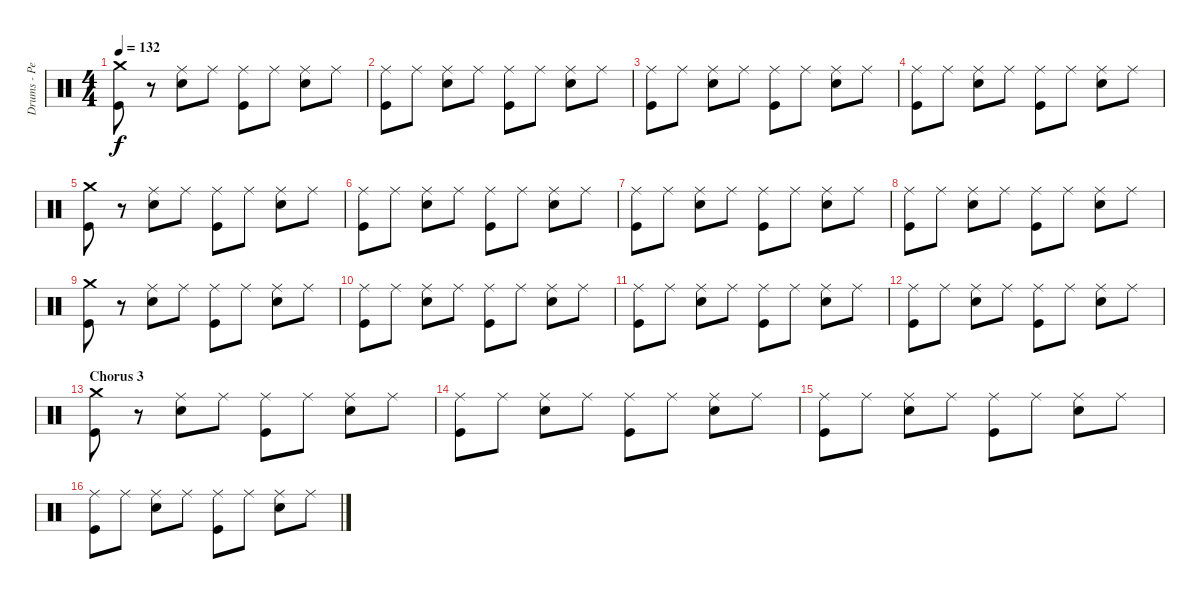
\track ("Drums - Pete Gill" "Drums - Pe") {instrument percussion}
\staff {score}
\articulation defaults
\ts (4 4)
\tempo 132
\clef neutral
\ks c
("Crash medium (hit)" "Kick (hit)").8{dy f} r.8 ("Ride (middle)" "Snare (hit) 2").8 "Ride (middle)".8 ("Ride (middle)" "Kick (hit)").8 "Ride (middle)".8 ("Ride (middle)" "Snare (hit) 2").8 "Ride (middle)".8 |
("Ride (middle)" "Kick (hit)").8 "Ride (middle)".8 ("Ride (middle)" "Snare (hit) 2").8 "Ride (middle)".8 ("Ride (middle)" "Kick (hit)").8 "Ride (middle)".8 ("Ride (middle)" "Snare (hit) 2").8 "Ride (middle)".8 |
("Ride (middle)" "Kick (hit)").8 "Ride (middle)".8 ("Ride (middle)" "Snare (hit) 2").8 "Ride (middle)".8 ("Ride (middle)" "Kick (hit)").8 "Ride (middle)".8 ("Ride (middle)" "Snare (hit) 2").8 "Ride (middle)".8 |
("Ride (middle)" "Kick (hit)").8 "Ride (middle)".8 ("Ride (middle)" "Snare (hit) 2").8 "Ride (middle)".8 ("Ride (middle)" "Kick (hit)").8 "Ride (middle)".8 ("Ride (middle)" "Snare (hit) 2").8 "Ride (middle)".8 |
("Crash medium (hit)" "Kick (hit)").8 r.8 ("Ride (middle)" "Snare (hit) 2").8 "Ride (middle)".8 ("Ride (middle)" "Kick (hit)").8 "Ride (middle)".8 ("Ride (middle)" "Snare (hit) 2").8 "Ride (middle)".8 |
("Ride (middle)" "Kick (hit)").8 "Ride (middle)".8 ("Ride (middle)" "Snare (hit) 2").8 "Ride (middle)".8 ("Ride (middle)" "Kick (hit)").8 "Ride (middle)".8 ("Ride (middle)" "Snare (hit) 2").8 "Ride (middle)".8 |
("Ride (middle)" "Kick (hit)").8 "Ride (middle)".8 ("Ride (middle)" "Snare (hit) 2").8 "Ride (middle)".8 ("Ride (middle)" "Kick (hit)").8 "Ride (middle)".8 ("Ride (middle)" "Snare (hit) 2").8 "Ride (middle)".8 |
("Ride (middle)" "Kick (hit)").8 "Ride (middle)".8 ("Ride (middle)" "Snare (hit) 2").8 "Ride (middle)".8 ("Ride (middle)" "Kick (hit)").8 "Ride (middle)".8 ("Ride (middle)" "Snare (hit) 2").8 "Ride (middle)".8 |
("Crash medium (hit)" "Kick (hit)").8 r.8 ("Ride (middle)" "Snare (hit) 2").8 "Ride (middle)".8 ("Ride (middle)" "Kick (hit)").8 "Ride (middle)".8 ("Ride (middle)" "Snare (hit) 2").8 "Ride (middle)".8 |
("Ride (middle)" "Kick (hit)").8 "Ride (middle)".8 ("Ride (middle)" "Snare (hit) 2").8 "Ride (middle)".8 ("Ride (middle)" "Kick (hit)").8 "Ride (middle)".8 ("Ride (middle)" "Snare (hit) 2").8 "Ride (middle)".8 |
("Ride (middle)" "Kick (hit)").8 "Ride (middle)".8 ("Ride (middle)" "Snare (hit) 2").8 "Ride (middle)".8 ("Ride (middle)" "Kick (hit)").8 "Ride (middle)".8 ("Ride (middle)" "Snare (hit) 2").8 "Ride (middle)".8 |
("Ride (middle)" "Kick (hit)").8 "Ride (middle)".8 ("Ride (middle)" "Snare (hit) 2").8 "Ride (middle)".8 ("Ride (middle)" "Kick (hit)").8 "Ride (middle)".8 ("Ride (middle)" "Snare (hit) 2").8 "Ride (middle)".8 |
\section ("" "Chorus 3")
("Crash medium (hit)" "Kick (hit)").8 r.8 ("Ride (middle)" "Snare (hit) 2").8 "Ride (middle)".8 ("Ride (middle)" "Kick (hit)").8 "Ride (middle)".8 ("Ride (middle)" "Snare (hit) 2").8 "Ride (middle)".8 |
("Ride (middle)" "Kick (hit)").8 "Ride (middle)".8 ("Ride (middle)" "Snare (hit) 2").8 "Ride (middle)".8 ("Ride (middle)" "Kick (hit)").8 "Ride (middle)".8 ("Ride (middle)" "Snare (hit) 2").8 "Ride (middle)".8 |
("Ride (middle)" "Kick (hit)").8 "Ride (middle)".8 ("Ride (middle)" "Snare (hit) 2").8 "Ride (middle)".8 ("Ride (middle)" "Kick (hit)").8 "Ride (middle)".8 ("Ride (middle)" "Snare (hit) 2").8 "Ride (middle)".8 |
("Ride (middle)" "Kick (hit)").8 "Ride (middle)".8 ("Ride (middle)" "Snare (hit) 2").8 "Ride (middle)".8 ("Ride (middle)" "Kick (hit)").8 "Ride (middle)".8 ("Ride (middle)" "Snare (hit) 2").8 "Ride (middle)".8
